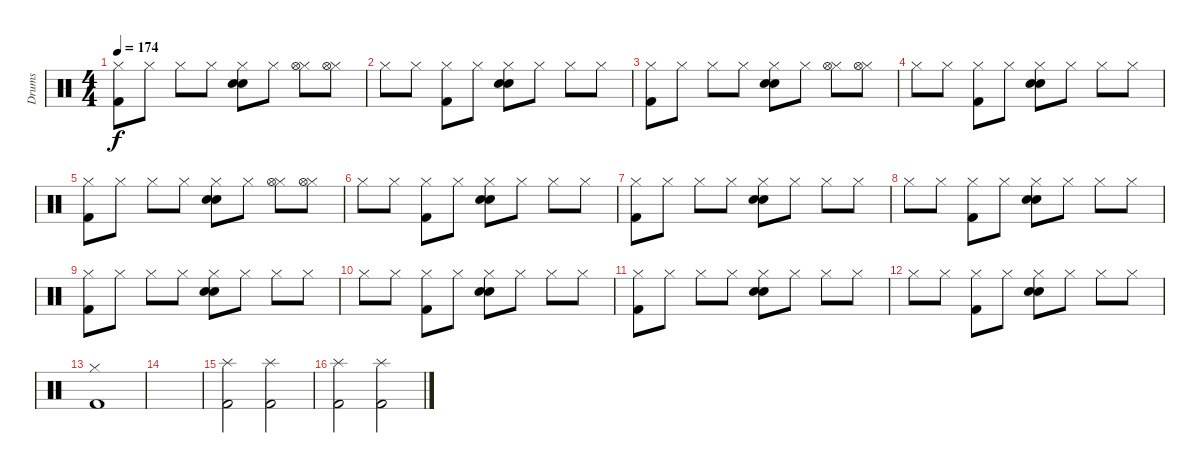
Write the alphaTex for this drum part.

\track ("Drums" "Drums") {instrument percussion}
\staff {score}
\articulation defaults
\ts (4 4)
\tempo 174
\clef neutral
\ks c
("Hi-Hat (closed)" "Kick (hit) 2").8{dy f} "Hi-Hat (closed)".8 "Hi-Hat (closed)".8 "Hi-Hat (closed)".8 ("Hi-Hat (closed)" "Snare (hit) 2" "Hand Clap (hit)").8 "Hi-Hat (closed)".8 ("Hi-Hat (closed)" "Hi-Hat (open)").8 ("Hi-Hat (closed)" "Hi-Hat (open)").8 |
"Hi-Hat (closed)".8 "Hi-Hat (closed)".8 ("Hi-Hat (closed)" "Kick (hit) 2").8 "Hi-Hat (closed)".8 ("Hi-Hat (closed)" "Snare (hit) 2" "Hand Clap (hit)").8 "Hi-Hat (closed)".8 "Hi-Hat (closed)".8 "Hi-Hat (closed)".8 |
("Hi-Hat (closed)" "Kick (hit) 2").8 "Hi-Hat (closed)".8 "Hi-Hat (closed)".8 "Hi-Hat (closed)".8 ("Hi-Hat (closed)" "Snare (hit) 2" "Hand Clap (hit)").8 "Hi-Hat (closed)".8 ("Hi-Hat (closed)" "Hi-Hat (open)").8 ("Hi-Hat (closed)" "Hi-Hat (open)").8 |
"Hi-Hat (closed)".8 "Hi-Hat (closed)".8 ("Hi-Hat (closed)" "Kick (hit) 2").8 "Hi-Hat (closed)".8 ("Hi-Hat (closed)" "Snare (hit) 2" "Hand Clap (hit)").8 "Hi-Hat (closed)".8 "Hi-Hat (closed)".8 "Hi-Hat (closed)".8 |
("Hi-Hat (closed)" "Kick (hit) 2").8 "Hi-Hat (closed)".8 "Hi-Hat (closed)".8 "Hi-Hat (closed)".8 ("Hi-Hat (closed)" "Snare (hit) 2" "Hand Clap (hit)").8 "Hi-Hat (closed)".8 ("Hi-Hat (closed)" "Hi-Hat (open)").8 ("Hi-Hat (closed)" "Hi-Hat (open)").8 |
"Hi-Hat (closed)".8 "Hi-Hat (closed)".8 ("Hi-Hat (closed)" "Kick (hit) 2").8 "Hi-Hat (closed)".8 ("Hi-Hat (closed)" "Snare (hit) 2" "Hand Clap (hit)").8 "Hi-Hat (closed)".8 "Hi-Hat (closed)".8 "Hi-Hat (closed)".8 |
("Hi-Hat (closed)" "Kick (hit) 2").8 "Hi-Hat (closed)".8 "Hi-Hat (closed)".8 "Hi-Hat (closed)".8 ("Hi-Hat (closed)" "Snare (hit) 2" "Hand Clap (hit)").8 "Hi-Hat (closed)".8 "Hi-Hat (closed)".8 "Hi-Hat (closed)".8 |
"Hi-Hat (closed)".8 "Hi-Hat (closed)".8 ("Hi-Hat (closed)" "Kick (hit) 2").8 "Hi-Hat (closed)".8 ("Hi-Hat (closed)" "Snare (hit) 2" "Hand Clap (hit)").8 "Hi-Hat (closed)".8 "Hi-Hat (closed)".8 "Hi-Hat (closed)".8 |
("Hi-Hat (closed)" "Kick (hit) 2").8 "Hi-Hat (closed)".8 "Hi-Hat (closed)".8 "Hi-Hat (closed)".8 ("Hi-Hat (closed)" "Snare (hit) 2" "Hand Clap (hit)").8 "Hi-Hat (closed)".8 "Hi-Hat (closed)".8 "Hi-Hat (closed)".8 |
"Hi-Hat (closed)".8 "Hi-Hat (closed)".8 ("Hi-Hat (closed)" "Kick (hit) 2").8 "Hi-Hat (closed)".8 ("Hi-Hat (closed)" "Snare (hit) 2" "Hand Clap (hit)").8 "Hi-Hat (closed)".8 "Hi-Hat (closed)".8 "Hi-Hat (closed)".8 |
("Hi-Hat (closed)" "Kick (hit) 2").8 "Hi-Hat (closed)".8 "Hi-Hat (closed)".8 "Hi-Hat (closed)".8 ("Hi-Hat (closed)" "Snare (hit) 2" "Hand Clap (hit)").8 "Hi-Hat (closed)".8 "Hi-Hat (closed)".8 "Hi-Hat (closed)".8 |
"Hi-Hat (closed)".8 "Hi-Hat (closed)".8 ("Hi-Hat (closed)" "Kick (hit) 2").8 "Hi-Hat (closed)".8 ("Hi-Hat (closed)" "Snare (hit) 2" "Hand Clap (hit)").8 "Hi-Hat (closed)".8 "Hi-Hat (closed)".8 "Hi-Hat (closed)".8 |
("Kick (hit) 2" "Hi-Hat (closed)").1 |
|
("Kick (hit) 2" "Splash (hit)").2 ("Kick (hit) 2" "Splash (hit)").2 |
("Kick (hit) 2" "Splash (hit)").2 ("Kick (hit) 2" "Splash (hit)").2
